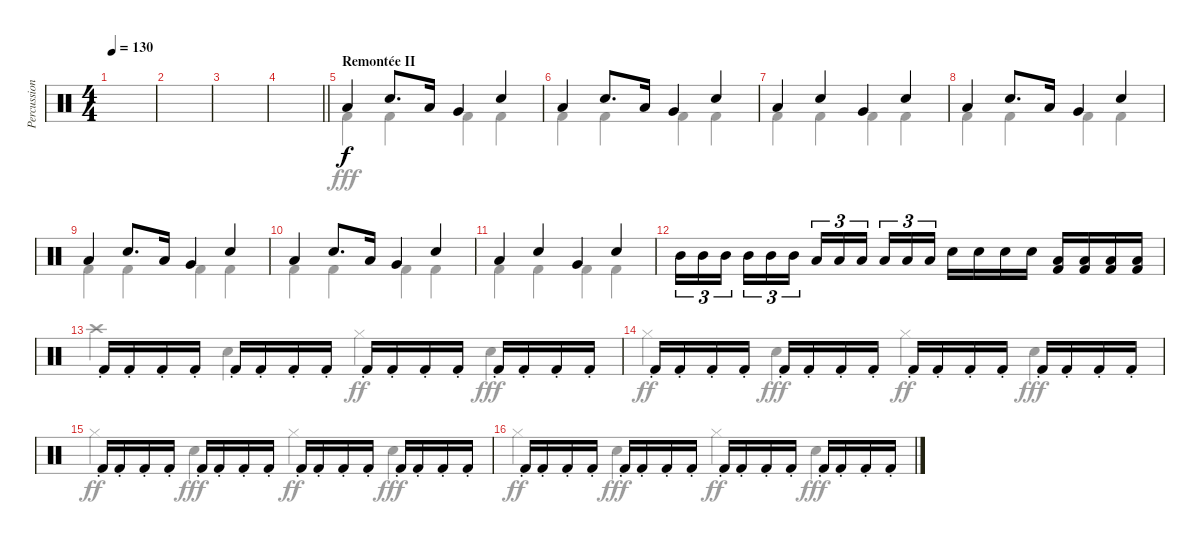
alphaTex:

\track ("Percussions" "Percussion") {instrument percussion}
\staff {score}
\articulation defaults
\voice
\ts (4 4)
\tempo 130
\clef neutral
\ks c
|
|
|
\barLineRight lightlight
|
\section ("" "Remontée II")
"Low Tom (hit)".4 "Electric Snare (hit)".8{d} "Low Tom (hit)".16 "Very Low Tom (hit)".4 "Electric Snare (hit)".4 |
"Low Tom (hit)".4 "Electric Snare (hit)".8{d} "Low Tom (hit)".16 "Very Low Tom (hit)".4 "Electric Snare (hit)".4 |
"Low Tom (hit)".4 "Electric Snare (hit)".4 "Very Low Tom (hit)".4 "Electric Snare (hit)".4 |
"Low Tom (hit)".4 "Electric Snare (hit)".8{d} "Low Tom (hit)".16 "Very Low Tom (hit)".4 "Electric Snare (hit)".4 |
"Low Tom (hit)".4 "Electric Snare (hit)".8{d} "Low Tom (hit)".16 "Very Low Tom (hit)".4 "Electric Snare (hit)".4 |
"Low Tom (hit)".4 "Electric Snare (hit)".8{d} "Low Tom (hit)".16 "Very Low Tom (hit)".4 "Electric Snare (hit)".4 |
"Low Tom (hit)".4 "Electric Snare (hit)".4 "Very Low Tom (hit)".4 "Electric Snare (hit)".4 |
"Mid Tom (hit)".16{tu (3 2)} "Mid Tom (hit)".16{tu (3 2)} "Mid Tom (hit)".16{tu (3 2) beam splitsecondary} "Mid Tom (hit)".16{tu (3 2)} "Mid Tom (hit)".16{tu (3 2)} "Mid Tom (hit)".16{tu (3 2)} "Low Tom (hit)".16{tu (3 2)} "Low Tom (hit)".16{tu (3 2)} "Low Tom (hit)".16{tu (3 2) beam splitsecondary} "Low Tom (hit)".16{tu (3 2)} "Low Tom (hit)".16{tu (3 2)} "Low Tom (hit)".16{tu (3 2)} "Electric Snare (hit)".16 "Electric Snare (hit)".16 "Electric Snare (hit)".16 "Electric Snare (hit)".16 ("Low Floor Tom (hit)" "Kick (hit) 2").16 ("Low Floor Tom (hit)" "Kick (hit) 2").16 ("Low Floor Tom (hit)" "Kick (hit) 2").16 ("Low Floor Tom (hit)" "Kick (hit) 2").16 |
"Kick (hit) 2"{st}.16 "Kick (hit) 2"{st}.16 "Kick (hit) 2"{st}.16 "Kick (hit) 2"{st}.16 "Kick (hit) 2"{st}.16 "Kick (hit) 2"{st}.16 "Kick (hit) 2"{st}.16 "Kick (hit) 2"{st}.16 "Kick (hit) 2"{st}.16 "Kick (hit) 2"{st}.16 "Kick (hit) 2"{st}.16 "Kick (hit) 2"{st}.16 "Kick (hit) 2"{st}.16 "Kick (hit) 2"{st}.16 "Kick (hit) 2"{st}.16 "Kick (hit) 2"{st}.16 |
"Kick (hit) 2"{st}.16 "Kick (hit) 2"{st}.16 "Kick (hit) 2"{st}.16 "Kick (hit) 2"{st}.16 "Kick (hit) 2"{st}.16 "Kick (hit) 2"{st}.16 "Kick (hit) 2"{st}.16 "Kick (hit) 2"{st}.16 "Kick (hit) 2"{st}.16 "Kick (hit) 2"{st}.16 "Kick (hit) 2"{st}.16 "Kick (hit) 2"{st}.16 "Kick (hit) 2"{st}.16 "Kick (hit) 2"{st}.16 "Kick (hit) 2"{st}.16 "Kick (hit) 2"{st}.16 |
"Kick (hit) 2"{st}.16 "Kick (hit) 2"{st}.16 "Kick (hit) 2"{st}.16 "Kick (hit) 2"{st}.16 "Kick (hit) 2"{st}.16 "Kick (hit) 2"{st}.16 "Kick (hit) 2"{st}.16 "Kick (hit) 2"{st}.16 "Kick (hit) 2"{st}.16 "Kick (hit) 2"{st}.16 "Kick (hit) 2"{st}.16 "Kick (hit) 2"{st}.16 "Kick (hit) 2"{st}.16 "Kick (hit) 2"{st}.16 "Kick (hit) 2"{st}.16 "Kick (hit) 2"{st}.16 |
"Kick (hit) 2"{st}.16 "Kick (hit) 2"{st}.16 "Kick (hit) 2"{st}.16 "Kick (hit) 2"{st}.16 "Kick (hit) 2"{st}.16 "Kick (hit) 2"{st}.16 "Kick (hit) 2"{st}.16 "Kick (hit) 2"{st}.16 "Kick (hit) 2"{st}.16 "Kick (hit) 2"{st}.16 "Kick (hit) 2"{st}.16 "Kick (hit) 2"{st}.16 "Kick (hit) 2"{st}.16 "Kick (hit) 2"{st}.16 "Kick (hit) 2"{st}.16 "Kick (hit) 2"{st}.16
\voice
\clef neutral
\ottava regular
\simile none
\ks c
|
|
|
\barLineRight lightlight
|
"Kick (hit) 2".4{dy fff} "Kick (hit) 2".4 "Kick (hit) 2".4 "Kick (hit) 2".4 |
"Kick (hit) 2".4 "Kick (hit) 2".4 "Kick (hit) 2".4 "Kick (hit) 2".4 |
"Kick (hit) 2".4 "Kick (hit) 2".4 "Kick (hit) 2".4 "Kick (hit) 2".4 |
"Kick (hit) 2".4 "Kick (hit) 2".4 "Kick (hit) 2".4 "Kick (hit) 2".4 |
"Kick (hit) 2".4 "Kick (hit) 2".4 "Kick (hit) 2".4 "Kick (hit) 2".4 |
"Kick (hit) 2".4 "Kick (hit) 2".4 "Kick (hit) 2".4 "Kick (hit) 2".4 |
"Kick (hit) 2".4 "Kick (hit) 2".4 "Kick (hit) 2".4 "Kick (hit) 2".4 |
|
"Crash high (hit)".4 "Electric Snare (hit)".4 "Hi-Hat (closed)".4{dy ff} "Electric Snare (hit)".4{dy fff} |
"Hi-Hat (closed)".4{dy ff} "Electric Snare (hit)".4{dy fff} "Hi-Hat (closed)".4{dy ff} "Electric Snare (hit)".4{dy fff} |
"Hi-Hat (closed)".4{dy ff} "Electric Snare (hit)".4{dy fff} "Hi-Hat (closed)".4{dy ff} "Electric Snare (hit)".4{dy fff} |
"Hi-Hat (closed)".4{dy ff} "Electric Snare (hit)".4{dy fff} "Hi-Hat (closed)".4{dy ff} "Electric Snare (hit)".4{dy fff}
